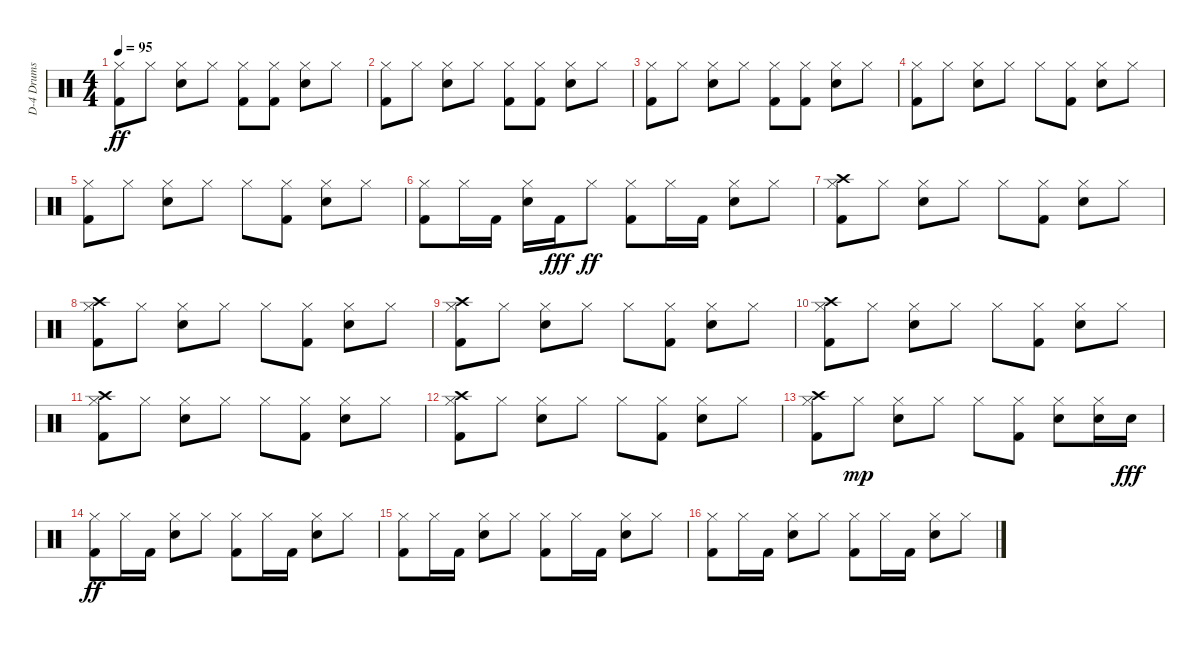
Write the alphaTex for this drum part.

\track ("D-4 Drums" "D-4 Drums") {instrument percussion}
\staff {score}
\articulation defaults
\ts (4 4)
\tempo 95
\clef neutral
\ks c
("Kick (hit) 2" "Hi-Hat (closed)").8{dy ff} "Hi-Hat (closed)".8 ("Snare (hit) 2" "Hi-Hat (closed)").8 "Hi-Hat (closed)".8 ("Kick (hit) 2" "Hi-Hat (closed)").8 ("Kick (hit) 2" "Hi-Hat (closed)").8 ("Snare (hit) 2" "Hi-Hat (closed)").8 "Hi-Hat (closed)".8 |
("Kick (hit) 2" "Hi-Hat (closed)").8 "Hi-Hat (closed)".8 ("Snare (hit) 2" "Hi-Hat (closed)").8 "Hi-Hat (closed)".8 ("Kick (hit) 2" "Hi-Hat (closed)").8 ("Kick (hit) 2" "Hi-Hat (closed)").8 ("Snare (hit) 2" "Hi-Hat (closed)").8 "Hi-Hat (closed)".8 |
("Kick (hit) 2" "Hi-Hat (closed)").8 "Hi-Hat (closed)".8 ("Snare (hit) 2" "Hi-Hat (closed)").8 "Hi-Hat (closed)".8 ("Kick (hit) 2" "Hi-Hat (closed)").8 ("Kick (hit) 2" "Hi-Hat (closed)").8 ("Snare (hit) 2" "Hi-Hat (closed)").8 "Hi-Hat (closed)".8 |
("Kick (hit) 2" "Hi-Hat (closed)").8 "Hi-Hat (closed)".8 ("Snare (hit) 2" "Hi-Hat (closed)").8 "Hi-Hat (closed)".8 "Hi-Hat (closed)".8 ("Kick (hit) 2" "Hi-Hat (closed)").8 ("Snare (hit) 2" "Hi-Hat (closed)").8 "Hi-Hat (closed)".8 |
("Kick (hit) 2" "Hi-Hat (closed)").8 "Hi-Hat (closed)".8 ("Snare (hit) 2" "Hi-Hat (closed)").8 "Hi-Hat (closed)".8 "Hi-Hat (closed)".8 ("Kick (hit) 2" "Hi-Hat (closed)").8 ("Snare (hit) 2" "Hi-Hat (closed)").8 "Hi-Hat (closed)".8 |
("Kick (hit) 2" "Hi-Hat (closed)").8 "Hi-Hat (closed)".16 "Kick (hit) 2".16 ("Snare (hit) 2" "Hi-Hat (closed)").16 "Kick (hit) 2".16{dy fff} "Hi-Hat (closed)".8{dy ff} ("Kick (hit) 2" "Hi-Hat (closed)").8 "Hi-Hat (closed)".16 "Kick (hit) 2".16 ("Snare (hit) 2" "Hi-Hat (closed)").8 "Hi-Hat (closed)".8 |
("Kick (hit) 2" "Hi-Hat (closed)" "Crash high (hit)").8 "Hi-Hat (closed)".8 ("Snare (hit) 2" "Hi-Hat (closed)").8 "Hi-Hat (closed)".8 "Hi-Hat (closed)".8 ("Kick (hit) 2" "Hi-Hat (closed)").8 ("Snare (hit) 2" "Hi-Hat (closed)").8 "Hi-Hat (closed)".8 |
("Kick (hit) 2" "Hi-Hat (closed)" "Crash high (hit)").8 "Hi-Hat (closed)".8 ("Snare (hit) 2" "Hi-Hat (closed)").8 "Hi-Hat (closed)".8 "Hi-Hat (closed)".8 ("Kick (hit) 2" "Hi-Hat (closed)").8 ("Snare (hit) 2" "Hi-Hat (closed)").8 "Hi-Hat (closed)".8 |
("Kick (hit) 2" "Hi-Hat (closed)" "Crash high (hit)").8 "Hi-Hat (closed)".8 ("Snare (hit) 2" "Hi-Hat (closed)").8 "Hi-Hat (closed)".8 "Hi-Hat (closed)".8 ("Kick (hit) 2" "Hi-Hat (closed)").8 ("Snare (hit) 2" "Hi-Hat (closed)").8 "Hi-Hat (closed)".8 |
("Kick (hit) 2" "Hi-Hat (closed)" "Crash high (hit)").8 "Hi-Hat (closed)".8 ("Snare (hit) 2" "Hi-Hat (closed)").8 "Hi-Hat (closed)".8 "Hi-Hat (closed)".8 ("Kick (hit) 2" "Hi-Hat (closed)").8 ("Snare (hit) 2" "Hi-Hat (closed)").8 "Hi-Hat (closed)".8 |
("Kick (hit) 2" "Hi-Hat (closed)" "Crash high (hit)").8 "Hi-Hat (closed)".8 ("Snare (hit) 2" "Hi-Hat (closed)").8 "Hi-Hat (closed)".8 "Hi-Hat (closed)".8 ("Kick (hit) 2" "Hi-Hat (closed)").8 ("Snare (hit) 2" "Hi-Hat (closed)").8 "Hi-Hat (closed)".8 |
("Kick (hit) 2" "Hi-Hat (closed)" "Crash high (hit)").8 "Hi-Hat (closed)".8 ("Snare (hit) 2" "Hi-Hat (closed)").8 "Hi-Hat (closed)".8 "Hi-Hat (closed)".8 ("Kick (hit) 2" "Hi-Hat (closed)").8 ("Snare (hit) 2" "Hi-Hat (closed)").8 "Hi-Hat (closed)".8 |
("Kick (hit) 2" "Hi-Hat (closed)" "Crash high (hit)").8 "Hi-Hat (closed)".8{dy mp} ("Snare (hit) 2" "Hi-Hat (closed)").8 "Hi-Hat (closed)".8 "Hi-Hat (closed)".8 ("Kick (hit) 2" "Hi-Hat (closed)").8 ("Snare (hit) 2" "Hi-Hat (closed)").8 ("Snare (hit) 2" "Hi-Hat (closed)").16 "Snare (hit) 2".16{dy fff} |
("Kick (hit) 2" "Hi-Hat (closed)").8{dy ff} "Hi-Hat (closed)".16 "Kick (hit) 2".16 ("Snare (hit) 2" "Hi-Hat (closed)").8 "Hi-Hat (closed)".8 ("Kick (hit) 2" "Hi-Hat (closed)").8 "Hi-Hat (closed)".16 "Kick (hit) 2".16 ("Snare (hit) 2" "Hi-Hat (closed)").8 "Hi-Hat (closed)".8 |
("Kick (hit) 2" "Hi-Hat (closed)").8 "Hi-Hat (closed)".16 "Kick (hit) 2".16 ("Snare (hit) 2" "Hi-Hat (closed)").8 "Hi-Hat (closed)".8 ("Kick (hit) 2" "Hi-Hat (closed)").8 "Hi-Hat (closed)".16 "Kick (hit) 2".16 ("Snare (hit) 2" "Hi-Hat (closed)").8 "Hi-Hat (closed)".8 |
("Kick (hit) 2" "Hi-Hat (closed)").8 "Hi-Hat (closed)".16 "Kick (hit) 2".16 ("Snare (hit) 2" "Hi-Hat (closed)").8 "Hi-Hat (closed)".8 ("Kick (hit) 2" "Hi-Hat (closed)").8 "Hi-Hat (closed)".16 "Kick (hit) 2".16 ("Snare (hit) 2" "Hi-Hat (closed)").8 "Hi-Hat (closed)".8
